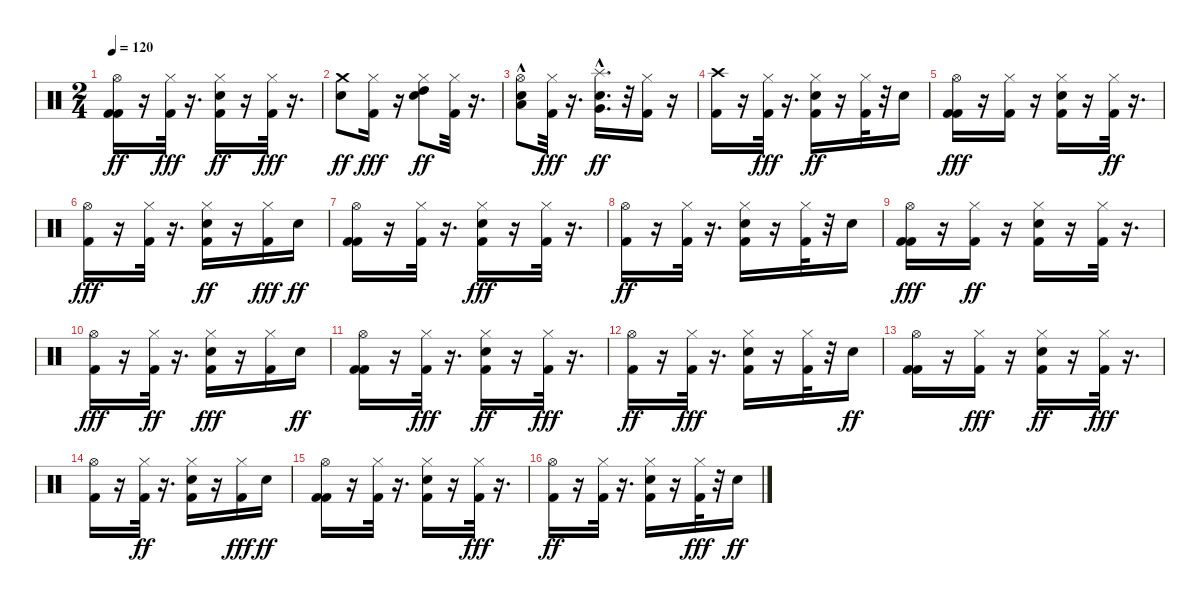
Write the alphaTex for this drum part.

\track "" {instrument percussion}
\staff {score}
\articulation defaults
\ts (2 4)
\tempo 120
\clef neutral
\ks c
("Kick (hit) 2" "Hi-Hat (open)" "Kick (hit) 2").16{dy ff} r.16 ("Kick (hit) 2" "Hi-Hat (closed)").32{dy fff} r.16{d} ("Snare (hit) 2" "Hi-Hat (closed)" "Kick (hit) 2").16{dy ff} r.16 ("Kick (hit) 2" "Hi-Hat (closed)").32{dy fff} r.16{d} |
("Snare (hit) 2" "Crash medium (hit)").8{dy ff} ("Kick (hit) 2" "Hi-Hat (closed)").16{dy fff} r.16 ("High Tom (hit)" "Hi-Hat (closed)" "Snare (hit) 2").8{dy ff} ("Hi-Hat (closed)" "Kick (hit) 2").32 r.16{d} |
("Low Tom (hit)"{hac} "Hi-Hat (open)" "Snare (hit) 2").8 ("Kick (hit) 2" "Hi-Hat (closed)").32{dy fff} r.16{d} ("Very Low Tom (hit)" "Splash (hit)" "Snare (hit) 2"{hac}).16{d dy ff} r.32 ("Hi-Hat (closed)" "Kick (hit) 2").16 r.16 |
("Crash high (hit)" "Kick (hit) 2").16 r.16 ("Kick (hit) 2" "Hi-Hat (closed)").32{dy fff} r.16{d} ("Hi-Hat (closed)" "Kick (hit) 2" "Snare (hit) 2").16{dy ff} r.16 ("Hi-Hat (closed)" "Kick (hit) 2").32 r.32 "Snare (hit) 2".16 |
("Kick (hit) 2" "Kick (hit) 2" "Hi-Hat (open)").16{dy fff} r.16 ("Kick (hit) 2" "Hi-Hat (closed)").16 r.16 ("Kick (hit) 2" "Snare (hit) 2" "Hi-Hat (closed)").16 r.16 ("Hi-Hat (closed)" "Kick (hit) 2").32{dy ff} r.16{d} |
("Kick (hit) 2" "Hi-Hat (open)").16{dy fff} r.16 ("Kick (hit) 2" "Hi-Hat (closed)").32 r.16{d} ("Snare (hit) 2" "Hi-Hat (closed)" "Kick (hit) 2").16{dy ff} r.16 ("Kick (hit) 2" "Hi-Hat (closed)").16{dy fff} "Snare (hit) 2".16{dy ff} |
("Kick (hit) 2" "Hi-Hat (open)" "Kick (hit) 2").16 r.16 ("Hi-Hat (closed)" "Kick (hit) 2").32 r.16{d} ("Snare (hit) 2" "Kick (hit) 2" "Hi-Hat (closed)").16{dy fff} r.16 ("Kick (hit) 2" "Hi-Hat (closed)").32 r.16{d} |
("Hi-Hat (open)" "Kick (hit) 2").16{dy ff} r.16 ("Hi-Hat (closed)" "Kick (hit) 2").32 r.16{d} ("Hi-Hat (closed)" "Snare (hit) 2" "Kick (hit) 2").16 r.16 ("Hi-Hat (closed)" "Kick (hit) 2").32 r.32 "Snare (hit) 2".16 |
("Kick (hit) 2" "Kick (hit) 2" "Hi-Hat (open)").16{dy fff} r.16 ("Hi-Hat (closed)" "Kick (hit) 2").16{dy ff} r.16 ("Snare (hit) 2" "Hi-Hat (closed)" "Kick (hit) 2").16 r.16 ("Hi-Hat (closed)" "Kick (hit) 2").32 r.16{d} |
("Kick (hit) 2" "Hi-Hat (open)").16{dy fff} r.16 ("Hi-Hat (closed)" "Kick (hit) 2").32{dy ff} r.16{d} ("Kick (hit) 2" "Snare (hit) 2" "Hi-Hat (closed)").16{dy fff} r.16 ("Kick (hit) 2" "Hi-Hat (closed)").16 "Snare (hit) 2".16{dy ff} |
("Kick (hit) 2" "Hi-Hat (open)" "Kick (hit) 2").16 r.16 ("Kick (hit) 2" "Hi-Hat (closed)").32{dy fff} r.16{d} ("Hi-Hat (closed)" "Kick (hit) 2" "Snare (hit) 2").16{dy ff} r.16 ("Kick (hit) 2" "Hi-Hat (closed)").32{dy fff} r.16{d} |
("Hi-Hat (open)" "Kick (hit) 2").16{dy ff} r.16 ("Kick (hit) 2" "Hi-Hat (closed)").32{dy fff} r.16{d} ("Snare (hit) 2" "Kick (hit) 2" "Hi-Hat (closed)").16 r.16 ("Kick (hit) 2" "Hi-Hat (closed)").32 r.32 "Snare (hit) 2".16{dy ff} |
("Hi-Hat (open)" "Kick (hit) 2" "Kick (hit) 2").16 r.16 ("Kick (hit) 2" "Hi-Hat (closed)").16{dy fff} r.16 ("Snare (hit) 2" "Hi-Hat (closed)" "Kick (hit) 2").16{dy ff} r.16 ("Kick (hit) 2" "Hi-Hat (closed)").32{dy fff} r.16{d} |
("Kick (hit) 2" "Hi-Hat (open)").16 r.16 ("Hi-Hat (closed)" "Kick (hit) 2").32{dy ff} r.16{d} ("Snare (hit) 2" "Hi-Hat (closed)" "Kick (hit) 2").16 r.16 ("Kick (hit) 2" "Hi-Hat (closed)").16{dy fff} "Snare (hit) 2".16{dy ff} |
("Hi-Hat (open)" "Kick (hit) 2" "Kick (hit) 2").16 r.16 ("Hi-Hat (closed)" "Kick (hit) 2").32 r.16{d} ("Hi-Hat (closed)" "Kick (hit) 2" "Snare (hit) 2").16 r.16 ("Kick (hit) 2" "Hi-Hat (closed)").32{dy fff} r.16{d} |
("Hi-Hat (open)" "Kick (hit) 2").16{dy ff} r.16 ("Hi-Hat (closed)" "Kick (hit) 2").32 r.16{d} ("Hi-Hat (closed)" "Snare (hit) 2" "Kick (hit) 2").16 r.16 ("Kick (hit) 2" "Hi-Hat (closed)").32{dy fff} r.32 "Snare (hit) 2".16{dy ff}
